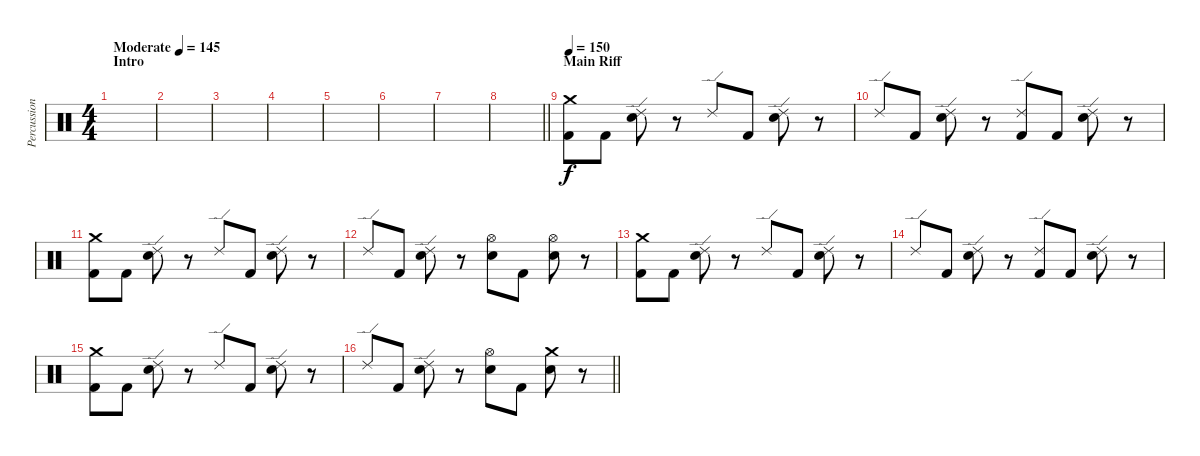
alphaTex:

\track ("Percussion" "Percussion") {instrument percussion}
\staff {score}
\articulation defaults
\ts (4 4)
\section ("" "Intro")
\tempo (145 "Moderate")
\clef neutral
\ks c
|
|
|
|
|
|
|
\barLineRight lightlight
|
\section ("" "Main Riff")
\tempo 150
("Crash medium (hit)" "Kick (hit) 2").8 "Kick (hit) 2".8 ("Ride (edge) 2" "Electric Snare (hit)").8 r.8 "Ride (edge) 2".8 "Kick (hit) 2".8 ("Ride (edge) 2" "Electric Snare (hit)").8 r.8 |
"Ride (edge) 2".8 "Kick (hit) 2".8 ("Ride (edge) 2" "Electric Snare (hit)").8 r.8 ("Ride (edge) 2" "Kick (hit) 2").8 "Kick (hit) 2".8 ("Ride (edge) 2" "Electric Snare (hit)").8 r.8 |
("Crash medium (hit)" "Kick (hit) 2").8 "Kick (hit) 2".8 ("Ride (edge) 2" "Electric Snare (hit)").8 r.8 "Ride (edge) 2".8 "Kick (hit) 2".8 ("Ride (edge) 2" "Electric Snare (hit)").8 r.8 |
"Ride (edge) 2".8 "Kick (hit) 2".8 ("Ride (edge) 2" "Electric Snare (hit)").8 r.8 ("Hi-Hat (open)" "Electric Snare (hit)").8 "Kick (hit) 2".8 ("Hi-Hat (open)" "Electric Snare (hit)").8 r.8 |
("Crash medium (hit)" "Kick (hit) 2").8 "Kick (hit) 2".8 ("Ride (edge) 2" "Electric Snare (hit)").8 r.8 "Ride (edge) 2".8 "Kick (hit) 2".8 ("Ride (edge) 2" "Electric Snare (hit)").8 r.8 |
"Ride (edge) 2".8 "Kick (hit) 2".8 ("Ride (edge) 2" "Electric Snare (hit)").8 r.8 ("Ride (edge) 2" "Kick (hit) 2").8 "Kick (hit) 2".8 ("Ride (edge) 2" "Electric Snare (hit)").8 r.8 |
("Crash medium (hit)" "Kick (hit) 2").8 "Kick (hit) 2".8 ("Ride (edge) 2" "Electric Snare (hit)").8 r.8 "Ride (edge) 2".8 "Kick (hit) 2".8 ("Ride (edge) 2" "Electric Snare (hit)").8 r.8 |
\barLineRight lightlight "Ride (edge) 2".8 "Kick (hit) 2".8
("Ride (edge) 2" "Electric Snare (hit)").8 r.8 ("Hi-Hat (open)" "Electric Snare (hit)").8 "Kick (hit) 2".8 ("Crash medium (hit)" "Electric Snare (hit)").8 r.8
